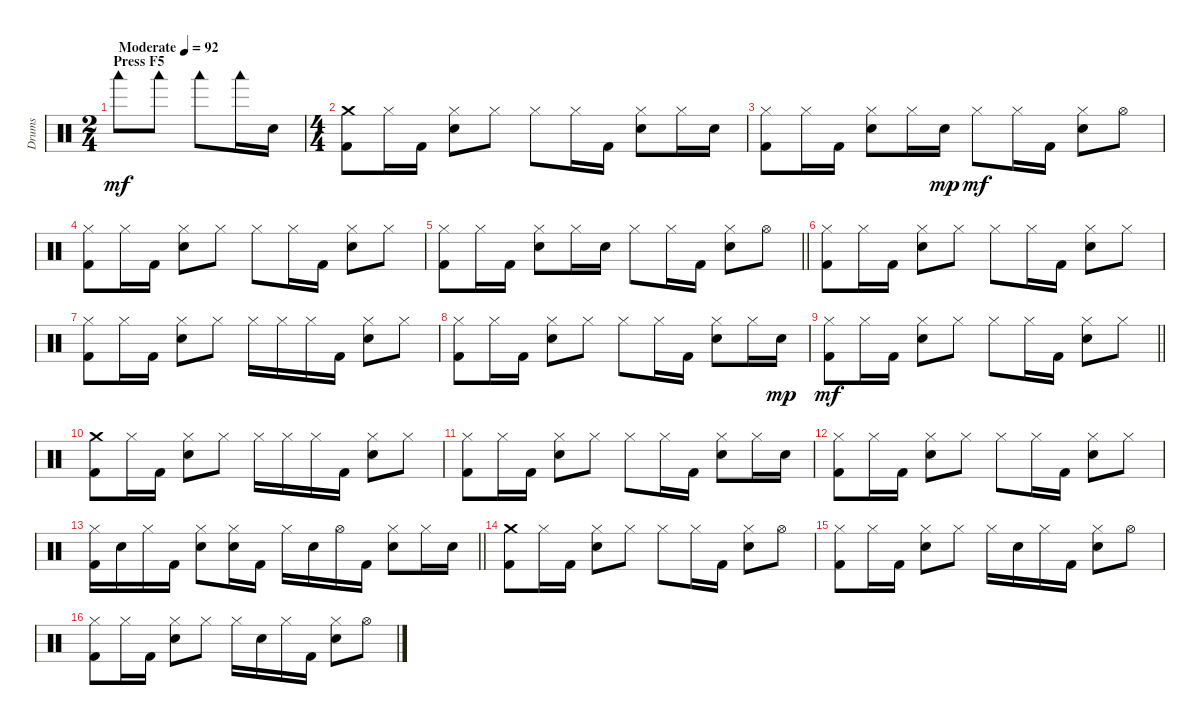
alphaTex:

\track ("Drums" "Drums") {instrument percussion}
\staff {score}
\articulation defaults
\ts (2 4)
\section ("" "Press F5")
\tempo (92 "Moderate")
\clef neutral
\ks c "Woodblock low (hit)".8{dy mf} "Woodblock low (hit)".8 "Woodblock low (hit)".8 "Woodblock low (hit)".16 "Snare (hit) 2".16
|
\ts (4 4)
("Crash medium (hit)" "Kick (hit) 2").8 "Hi-Hat (closed)".16 "Kick (hit) 2".16 ("Hi-Hat (closed)" "Snare (hit) 2").8 "Hi-Hat (closed)".8 "Hi-Hat (closed)".8 "Hi-Hat (closed)".16 "Kick (hit) 2".16 ("Hi-Hat (closed)" "Snare (hit) 2").8 "Hi-Hat (closed)".16 "Snare (hit) 2".16 |
("Hi-Hat (closed)" "Kick (hit) 2").8 "Hi-Hat (closed)".16 "Kick (hit) 2".16 ("Hi-Hat (closed)" "Snare (hit) 2").8 "Hi-Hat (closed)".16 "Snare (hit) 2".16{dy mp} "Hi-Hat (closed)".8{dy mf} "Hi-Hat (closed)".16 "Kick (hit) 2".16 ("Hi-Hat (closed)" "Snare (hit) 2").8 "Hi-Hat (open)".8 |
("Hi-Hat (closed)" "Kick (hit) 2").8 "Hi-Hat (closed)".16 "Kick (hit) 2".16 ("Hi-Hat (closed)" "Snare (hit) 2").8 "Hi-Hat (closed)".8 "Hi-Hat (closed)".8 "Hi-Hat (closed)".16 "Kick (hit) 2".16 ("Hi-Hat (closed)" "Snare (hit) 2").8 "Hi-Hat (closed)".8 |
\barLineRight lightlight
("Hi-Hat (closed)" "Kick (hit) 2").8 "Hi-Hat (closed)".16 "Kick (hit) 2".16 ("Hi-Hat (closed)" "Snare (hit) 2").8 "Hi-Hat (closed)".16 "Snare (hit) 2".16 "Hi-Hat (closed)".8 "Hi-Hat (closed)".16 "Kick (hit) 2".16 ("Hi-Hat (closed)" "Snare (hit) 2").8 "Hi-Hat (open)".8 |
\section ("" "")
("Hi-Hat (closed)" "Kick (hit) 2").8 "Hi-Hat (closed)".16 "Kick (hit) 2".16 ("Hi-Hat (closed)" "Snare (hit) 2").8 "Hi-Hat (closed)".8 "Hi-Hat (closed)".8 "Hi-Hat (closed)".16 "Kick (hit) 2".16 ("Hi-Hat (closed)" "Snare (hit) 2").8 "Hi-Hat (closed)".8 |
("Hi-Hat (closed)" "Kick (hit) 2").8 "Hi-Hat (closed)".16 "Kick (hit) 2".16 ("Hi-Hat (closed)" "Snare (hit) 2").8 "Hi-Hat (closed)".8 "Hi-Hat (closed)".16 "Hi-Hat (closed)".16 "Hi-Hat (closed)".16 "Kick (hit) 2".16 ("Hi-Hat (closed)" "Snare (hit) 2").8 "Hi-Hat (closed)".8 |
("Hi-Hat (closed)" "Kick (hit) 2").8 "Hi-Hat (closed)".16 "Kick (hit) 2".16 ("Hi-Hat (closed)" "Snare (hit) 2").8 "Hi-Hat (closed)".8 "Hi-Hat (closed)".8 "Hi-Hat (closed)".16 "Kick (hit) 2".16 ("Hi-Hat (closed)" "Snare (hit) 2").8 "Hi-Hat (closed)".16 "Snare (hit) 2".16{dy mp} |
\barLineRight lightlight
("Hi-Hat (closed)" "Kick (hit) 2").8{dy mf} "Hi-Hat (closed)".16 "Kick (hit) 2".16 ("Hi-Hat (closed)" "Snare (hit) 2").8 "Hi-Hat (closed)".8 "Hi-Hat (closed)".8 "Hi-Hat (closed)".16 "Kick (hit) 2".16 ("Hi-Hat (closed)" "Snare (hit) 2").8 "Hi-Hat (closed)".8 |
("Crash medium (hit)" "Kick (hit) 2").8 "Hi-Hat (closed)".16 "Kick (hit) 2".16 ("Hi-Hat (closed)" "Snare (hit) 2").8 "Hi-Hat (closed)".8 "Hi-Hat (closed)".16 "Hi-Hat (closed)".16 "Hi-Hat (closed)".16 "Kick (hit) 2".16 ("Hi-Hat (closed)" "Snare (hit) 2").8 "Hi-Hat (closed)".8 |
("Hi-Hat (closed)" "Kick (hit) 2").8 "Hi-Hat (closed)".16 "Kick (hit) 2".16 ("Hi-Hat (closed)" "Snare (hit) 2").8 "Hi-Hat (closed)".8 "Hi-Hat (closed)".8 "Hi-Hat (closed)".16 "Kick (hit) 2".16 ("Hi-Hat (closed)" "Snare (hit) 2").8 "Hi-Hat (closed)".16 "Snare (hit) 2".16 |
("Hi-Hat (closed)" "Kick (hit) 2").8 "Hi-Hat (closed)".16 "Kick (hit) 2".16 ("Hi-Hat (closed)" "Snare (hit) 2").8 "Hi-Hat (closed)".8 "Hi-Hat (closed)".8 "Hi-Hat (closed)".16 "Kick (hit) 2".16 ("Hi-Hat (closed)" "Snare (hit) 2").8 "Hi-Hat (closed)".8 |
\barLineRight lightlight
("Hi-Hat (closed)" "Kick (hit) 2").16 "Snare (hit) 2".16 "Hi-Hat (closed)".16 "Kick (hit) 2".16 ("Hi-Hat (closed)" "Snare (hit) 2").8 ("Hi-Hat (closed)" "Snare (hit) 2").16 "Kick (hit) 2".16 "Hi-Hat (closed)".16 "Snare (hit) 2".16 "Hi-Hat (open)".16 "Kick (hit) 2".16 ("Hi-Hat (closed)" "Snare (hit) 2").8 "Hi-Hat (closed)".16 "Snare (hit) 2".16 |
("Crash medium (hit)" "Kick (hit) 2").8 "Hi-Hat (closed)".16 "Kick (hit) 2".16 ("Hi-Hat (closed)" "Snare (hit) 2").8 "Hi-Hat (closed)".8 "Hi-Hat (closed)".8 "Hi-Hat (closed)".16 "Kick (hit) 2".16 ("Hi-Hat (closed)" "Snare (hit) 2").8 "Hi-Hat (open)".8 |
("Hi-Hat (closed)" "Kick (hit) 2").8 "Hi-Hat (closed)".16 "Kick (hit) 2".16 ("Hi-Hat (closed)" "Snare (hit) 2").8 "Hi-Hat (closed)".8 "Hi-Hat (closed)".16 "Snare (hit) 2".16 "Hi-Hat (closed)".16 "Kick (hit) 2".16 ("Hi-Hat (closed)" "Snare (hit) 2").8 "Hi-Hat (open)".8 |
("Hi-Hat (closed)" "Kick (hit) 2").8 "Hi-Hat (closed)".16 "Kick (hit) 2".16 ("Hi-Hat (closed)" "Snare (hit) 2").8 "Hi-Hat (closed)".8 "Hi-Hat (closed)".16 "Snare (hit) 2".16 "Hi-Hat (closed)".16 "Kick (hit) 2".16 ("Hi-Hat (closed)" "Snare (hit) 2").8 "Hi-Hat (open)".8
